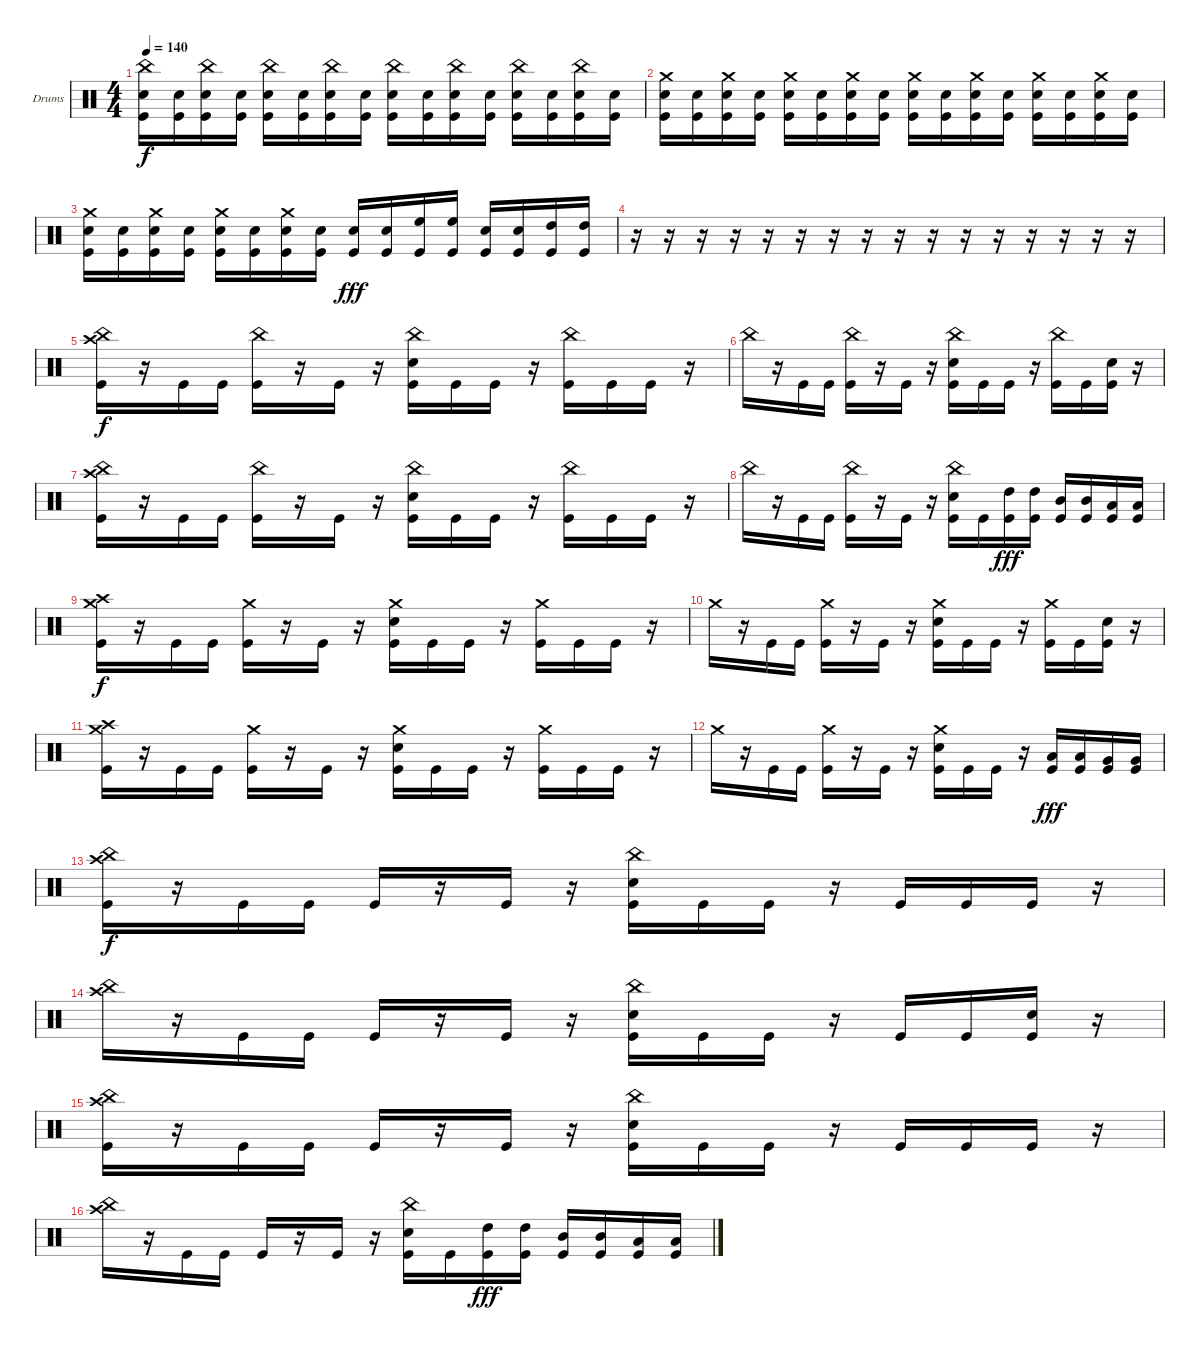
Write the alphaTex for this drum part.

\defaultSystemsLayout 4
\bracketExtendMode groupsimilarinstruments
\firstSystemTrackNameOrientation horizontal
\otherSystemsTrackNameOrientation horizontal
\track ("Drumkit" "Drums") {instrument percussion}
\staff {score}
\articulation defaults
\ts (4 4)
\tempo 140
\clef neutral
\scale
0.333333
\ks c
("Kick (hit)" "Snare (hit) 2" "China (hit)").16{dy f} ("Kick (hit)" "Snare (hit) 2").16 ("Kick (hit)" "Snare (hit) 2" "China (hit)").16 ("Kick (hit)" "Snare (hit) 2").16 ("Kick (hit)" "Snare (hit) 2" "China (hit)").16 ("Kick (hit)" "Snare (hit) 2").16 ("Kick (hit)" "Snare (hit) 2" "China (hit)").16 ("Kick (hit)" "Snare (hit) 2").16 ("Kick (hit)" "Snare (hit) 2" "China (hit)").16 ("Kick (hit)" "Snare (hit) 2").16 ("Kick (hit)" "Snare (hit) 2" "China (hit)").16 ("Kick (hit)" "Snare (hit) 2").16 ("Kick (hit)" "Snare (hit) 2" "China (hit)").16 ("Kick (hit)" "Snare (hit) 2").16 ("Kick (hit)" "Snare (hit) 2" "China (hit)").16 ("Kick (hit)" "Snare (hit) 2").16 |
\scale
0.333333 ("Kick (hit)" "Snare (hit) 2" "Crash medium (hit)").16 ("Kick (hit)" "Snare (hit) 2").16 ("Kick (hit)" "Snare (hit) 2" "Crash medium (hit)").16 ("Kick (hit)" "Snare (hit) 2").16 ("Kick (hit)" "Snare (hit) 2" "Crash medium (hit)").16 ("Kick (hit)" "Snare (hit) 2").16 ("Kick (hit)" "Snare (hit) 2" "Crash medium (hit)").16 ("Kick (hit)" "Snare (hit) 2").16 ("Kick (hit)" "Snare (hit) 2" "Crash medium (hit)").16 ("Kick (hit)" "Snare (hit) 2").16 ("Kick (hit)" "Snare (hit) 2" "Crash medium (hit)").16 ("Kick (hit)" "Snare (hit) 2").16 ("Kick (hit)" "Snare (hit) 2" "Crash medium (hit)").16 ("Kick (hit)" "Snare (hit) 2").16 ("Kick (hit)" "Snare (hit) 2" "Crash medium (hit)").16 ("Kick (hit)" "Snare (hit) 2").16 |
\scale
0.333333 ("Kick (hit)" "Snare (hit) 2" "Crash medium (hit)").16 ("Kick (hit)" "Snare (hit) 2").16 ("Kick (hit)" "Snare (hit) 2" "Crash medium (hit)").16 ("Kick (hit)" "Snare (hit) 2").16 ("Kick (hit)" "Snare (hit) 2" "Crash medium (hit)").16 ("Kick (hit)" "Snare (hit) 2").16 ("Kick (hit)" "Snare (hit) 2" "Crash medium (hit)").16 ("Kick (hit)" "Snare (hit) 2").16 ("Snare (hit) 2" "Kick (hit)").16{dy fff} ("Snare (hit) 2" "Kick (hit)").16 ("High Floor Tom (hit)" "Kick (hit)").16 ("High Floor Tom (hit)" "Kick (hit)").16 ("Snare (hit) 2" "Kick (hit)").16 ("Snare (hit) 2" "Kick (hit)").16 ("High Tom (hit)" "Kick (hit)").16 ("High Tom (hit)" "Kick (hit)").16 |
\scale
0.333333 r.16 r.16 r.16 r.16 r.16 r.16 r.16 r.16 r.16 r.16 r.16 r.16 r.16 r.16 r.16 r.16 |
\scale
0.333333 ("Kick (hit)" "China (hit)" "Crash high (hit)").16{dy f} r.16 "Kick (hit)".16 "Kick (hit)".16 ("Kick (hit)" "China (hit)").16 r.16 "Kick (hit)".16 r.16 ("Kick (hit)" "China (hit)" "Snare (hit) 2").16 "Kick (hit)".16 "Kick (hit)".16 r.16 ("Kick (hit)" "China (hit)").16 "Kick (hit)".16 "Kick (hit)".16 r.16 |
\scale
0.333333 "China (hit)".16 r.16 "Kick (hit)".16 "Kick (hit)".16 ("Kick (hit)" "China (hit)").16 r.16 "Kick (hit)".16 r.16 ("Kick (hit)" "China (hit)" "Snare (hit) 2").16 "Kick (hit)".16 "Kick (hit)".16 r.16 ("Kick (hit)" "China (hit)").16 "Kick (hit)".16 ("Kick (hit)" "Snare (hit) 2").16 r.16 |
\scale
0.333333 ("Kick (hit)" "China (hit)" "Crash high (hit)").16 r.16 "Kick (hit)".16 "Kick (hit)".16 ("Kick (hit)" "China (hit)").16 r.16 "Kick (hit)".16 r.16 ("Kick (hit)" "China (hit)" "Snare (hit) 2").16 "Kick (hit)".16 "Kick (hit)".16 r.16 ("Kick (hit)" "China (hit)").16 "Kick (hit)".16 "Kick (hit)".16 r.16 |
\scale
0.333333 "China (hit)".16 r.16 "Kick (hit)".16 "Kick (hit)".16 ("Kick (hit)" "China (hit)").16 r.16 "Kick (hit)".16 r.16 ("Kick (hit)" "China (hit)" "Snare (hit) 2").16 "Kick (hit)".16 ("Kick (hit)" "High Tom (hit)").16{dy fff} ("Kick (hit)" "High Tom (hit)").16 ("Kick (hit)" "Mid Tom (hit)").16 ("Kick (hit)" "Mid Tom (hit)").16 ("Kick (hit)" "Low Tom (hit)").16 ("Kick (hit)" "Low Tom (hit)").16 |
\scale
0.333333 ("Kick (hit)" "Crash high (hit)" "Crash medium (hit)").16{dy f} r.16 "Kick (hit)".16 "Kick (hit)".16 ("Kick (hit)" "Crash medium (hit)").16 r.16 "Kick (hit)".16 r.16 ("Kick (hit)" "Snare (hit) 2" "Crash medium (hit)").16 "Kick (hit)".16 "Kick (hit)".16 r.16 ("Kick (hit)" "Crash medium (hit)").16 "Kick (hit)".16 "Kick (hit)".16 r.16 |
\scale
0.333333 "Crash medium (hit)".16 r.16 "Kick (hit)".16 "Kick (hit)".16 ("Kick (hit)" "Crash medium (hit)").16 r.16 "Kick (hit)".16 r.16 ("Kick (hit)" "Snare (hit) 2" "Crash medium (hit)").16 "Kick (hit)".16 "Kick (hit)".16 r.16 ("Kick (hit)" "Crash medium (hit)").16 "Kick (hit)".16 ("Kick (hit)" "Snare (hit) 2").16 r.16 |
\scale
0.333333 ("Kick (hit)" "Crash high (hit)" "Crash medium (hit)").16 r.16 "Kick (hit)".16 "Kick (hit)".16 ("Kick (hit)" "Crash medium (hit)").16 r.16 "Kick (hit)".16 r.16 ("Kick (hit)" "Snare (hit) 2" "Crash medium (hit)").16 "Kick (hit)".16 "Kick (hit)".16 r.16 ("Kick (hit)" "Crash medium (hit)").16 "Kick (hit)".16 "Kick (hit)".16 r.16 |
\scale
0.333333 "Crash medium (hit)".16 r.16 "Kick (hit)".16 "Kick (hit)".16 ("Kick (hit)" "Crash medium (hit)").16 r.16 "Kick (hit)".16 r.16 ("Kick (hit)" "Snare (hit) 2" "Crash medium (hit)").16 "Kick (hit)".16 "Kick (hit)".16 r.16 ("Kick (hit)" "Low Tom (hit)").16{dy fff} ("Kick (hit)" "Low Tom (hit)").16 ("Kick (hit)" "Very Low Tom (hit)").16 ("Kick (hit)" "Very Low Tom (hit)").16 |
\scale
0.333333 ("Kick (hit)" "China (hit)" "Crash high (hit)").16{dy f} r.16 "Kick (hit)".16 "Kick (hit)".16 "Kick (hit)".16 r.16 "Kick (hit)".16 r.16 ("Kick (hit)" "Snare (hit) 2" "China (hit)").16 "Kick (hit)".16 "Kick (hit)".16 r.16 "Kick (hit)".16 "Kick (hit)".16 "Kick (hit)".16 r.16 |
\scale
0.333333 ("Crash high (hit)" "China (hit)").16 r.16 "Kick (hit)".16 "Kick (hit)".16 "Kick (hit)".16 r.16 "Kick (hit)".16 r.16 ("Kick (hit)" "Snare (hit) 2" "China (hit)").16 "Kick (hit)".16 "Kick (hit)".16 r.16 "Kick (hit)".16 "Kick (hit)".16 ("Kick (hit)" "Snare (hit) 2").16 r.16 |
\scale
0.333333 ("Kick (hit)" "China (hit)" "Crash high (hit)").16 r.16 "Kick (hit)".16 "Kick (hit)".16 "Kick (hit)".16 r.16 "Kick (hit)".16 r.16 ("Kick (hit)" "China (hit)" "Snare (hit) 2").16 "Kick (hit)".16 "Kick (hit)".16 r.16 "Kick (hit)".16 "Kick (hit)".16 "Kick (hit)".16 r.16 |
\scale
0.333333 ("China (hit)" "Crash high (hit)").16 r.16 "Kick (hit)".16 "Kick (hit)".16 "Kick (hit)".16 r.16 "Kick (hit)".16 r.16 ("Kick (hit)" "China (hit)" "Snare (hit) 2").16 "Kick (hit)".16 ("Kick (hit)" "High Tom (hit)").16{dy fff} ("Kick (hit)" "High Tom (hit)").16 ("Kick (hit)" "Mid Tom (hit)").16 ("Kick (hit)" "Mid Tom (hit)").16 ("Kick (hit)" "Low Tom (hit)").16 ("Kick (hit)" "Low Tom (hit)").16
